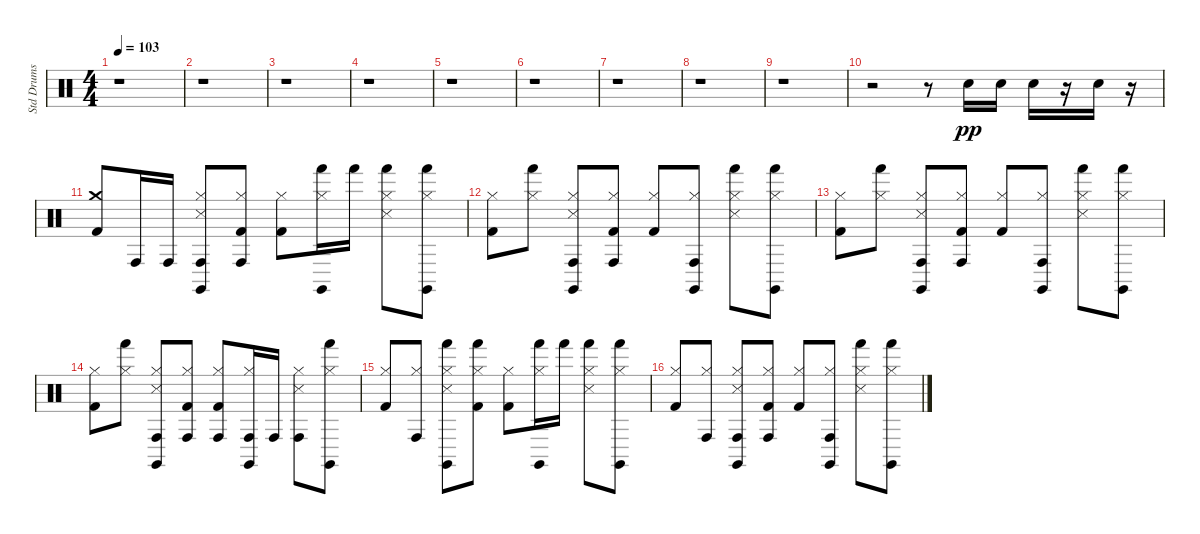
\track ("Std Drums " "Std Drums ") {instrument percussion}
\staff {score}
\articulation defaults
\ts (4 4)
\tempo 103
\clef neutral
\ks c
r.1{dy pp} |
r.1 |
r.1 |
r.1 |
r.1 |
r.1 |
r.1 |
r.1 |
r.1 |
r.2 r.8 "Snare (hit) 2".16{volume 13} "Snare (hit) 2".16 "Snare (hit) 2".16 r.16 "Snare (hit) 2".16 r.16 |
("Crash medium (hit)" "Kick (hit) 2").8 "Conga high (hit)".16 "Conga high (hit)".16 ("Hi-Hat (closed)" "Snare (side stick) 3" "Claves (hit)" "Conga high (hit)").8 ("Hi-Hat (closed)" "Conga high (hit)" "Kick (hit) 2").8 ("Kick (hit) 2" "Hi-Hat (closed)").8 ("Hi-Hat (closed)" "Claves (hit)" "Hand (hit)").16 "Hand (hit)".16 ("Hand (hit)" "Hi-Hat (closed)" "Snare (side stick) 3").8 ("Hand (hit)" "Hi-Hat (closed)" "Claves (hit)").8 |
("Hi-Hat (closed)" "Kick (hit) 2").8 ("Hi-Hat (closed)" "Hand (hit)").8 ("Claves (hit)" "Snare (side stick) 3" "Hi-Hat (closed)" "Conga high (hit)").8 ("Conga high (hit)" "Hi-Hat (closed)" "Kick (hit) 2").8 ("Hi-Hat (closed)" "Kick (hit) 2").8 ("Hi-Hat (closed)" "Claves (hit)" "Conga high (hit)").8 ("Snare (side stick) 3" "Hi-Hat (closed)" "Hand (hit)").8 ("Claves (hit)" "Hi-Hat (closed)" "Hand (hit)").8 |
("Hi-Hat (closed)" "Kick (hit) 2").8 ("Hand (hit)" "Hi-Hat (closed)").8 ("Hi-Hat (closed)" "Snare (side stick) 3" "Claves (hit)" "Conga high (hit)").8 ("Kick (hit) 2" "Conga high (hit)" "Hi-Hat (closed)").8 ("Kick (hit) 2" "Hi-Hat (closed)").8 ("Hi-Hat (closed)" "Conga high (hit)" "Claves (hit)").8 ("Hand (hit)" "Snare (side stick) 3" "Hi-Hat (closed)").8 ("Claves (hit)" "Hand (hit)" "Hi-Hat (closed)").8 |
("Kick (hit) 2" "Hi-Hat (closed)").8 ("Hand (hit)" "Hi-Hat (closed)").8 ("Hi-Hat (closed)" "Claves (hit)" "Snare (side stick) 3" "Conga high (hit)").8 ("Kick (hit) 2" "Conga high (hit)" "Hi-Hat (closed)").8 ("Kick (hit) 2" "Hi-Hat (closed)" "Conga high (hit)").8 ("Claves (hit)" "Conga high (hit)" "Hi-Hat (closed)").16 "Conga high (hit)".16 ("Hi-Hat (closed)" "Snare (side stick) 3" "Conga high (hit)").8 ("Hi-Hat (closed)" "Claves (hit)" "Hand (hit)").8 |
("Hi-Hat (closed)" "Kick (hit) 2").8 ("Hi-Hat (closed)" "Conga high (hit)").8 ("Snare (side stick) 3" "Claves (hit)" "Hand (hit)" "Hi-Hat (closed)").8 ("Kick (hit) 2" "Hand (hit)" "Hi-Hat (closed)").8 ("Kick (hit) 2" "Hi-Hat (closed)").8 ("Hand (hit)" "Hi-Hat (closed)" "Claves (hit)").16 "Hand (hit)".16 ("Snare (side stick) 3" "Hand (hit)" "Hi-Hat (closed)").8 ("Claves (hit)" "Hi-Hat (closed)" "Hand (hit)").8 |
("Hi-Hat (closed)" "Kick (hit) 2").8 ("Conga high (hit)" "Hi-Hat (closed)").8 ("Claves (hit)" "Snare (side stick) 3" "Conga high (hit)" "Hi-Hat (closed)").8 ("Hi-Hat (closed)" "Kick (hit) 2" "Conga high (hit)").8 ("Kick (hit) 2" "Hi-Hat (closed)").8 ("Conga high (hit)" "Hi-Hat (closed)" "Claves (hit)").8 ("Hand (hit)" "Snare (side stick) 3" "Hi-Hat (closed)").8 ("Claves (hit)" "Hand (hit)" "Hi-Hat (closed)").8
